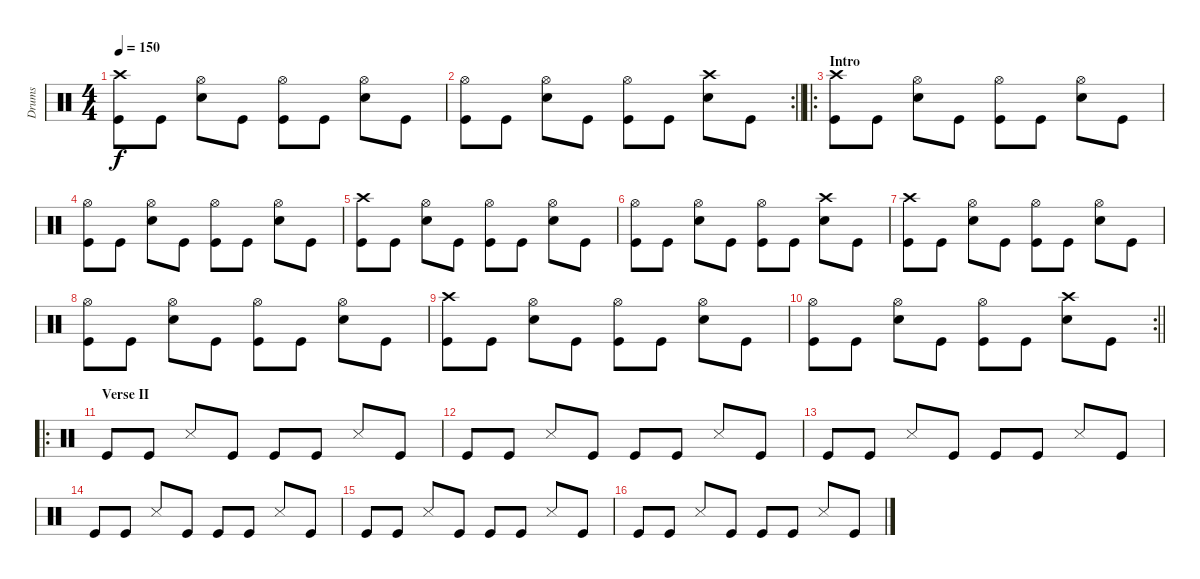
\track ("Drums" "Drums") {instrument percussion}
\staff {score}
\articulation defaults
\ts (4 4)
\tempo 150
\clef neutral
\ks c
("Crash high (hit)" "Kick (hit)").8{dy f} "Kick (hit)".8 ("Electric Snare (hit)" "Hi-Hat (open)").8 "Kick (hit)".8 ("Kick (hit)" "Hi-Hat (open)").8 "Kick (hit)".8 ("Electric Snare (hit)" "Hi-Hat (open)").8 "Kick (hit)".8 |
\rc 2
\barLineRight lightlight
("Kick (hit)" "Hi-Hat (open)").8 "Kick (hit)".8 ("Electric Snare (hit)" "Hi-Hat (open)").8 "Kick (hit)".8 ("Kick (hit)" "Hi-Hat (open)").8 "Kick (hit)".8 ("Crash high (hit)" "Electric Snare (hit)").8 "Kick (hit)".8 |
\ro
\section ("" "Intro")
("Crash high (hit)" "Kick (hit)").8 "Kick (hit)".8 ("Electric Snare (hit)" "Hi-Hat (open)").8 "Kick (hit)".8 ("Kick (hit)" "Hi-Hat (open)").8 "Kick (hit)".8 ("Electric Snare (hit)" "Hi-Hat (open)").8 "Kick (hit)".8 |
("Kick (hit)" "Hi-Hat (open)").8 "Kick (hit)".8 ("Electric Snare (hit)" "Hi-Hat (open)").8 "Kick (hit)".8 ("Kick (hit)" "Hi-Hat (open)").8 "Kick (hit)".8 ("Electric Snare (hit)" "Hi-Hat (open)").8 "Kick (hit)".8 |
("Crash high (hit)" "Kick (hit)").8 "Kick (hit)".8 ("Electric Snare (hit)" "Hi-Hat (open)").8 "Kick (hit)".8 ("Kick (hit)" "Hi-Hat (open)").8 "Kick (hit)".8 ("Electric Snare (hit)" "Hi-Hat (open)").8 "Kick (hit)".8 |
("Kick (hit)" "Hi-Hat (open)").8 "Kick (hit)".8 ("Electric Snare (hit)" "Hi-Hat (open)").8 "Kick (hit)".8 ("Kick (hit)" "Hi-Hat (open)").8 "Kick (hit)".8 ("Crash high (hit)" "Electric Snare (hit)").8 "Kick (hit)".8 |
("Crash high (hit)" "Kick (hit)").8 "Kick (hit)".8 ("Electric Snare (hit)" "Hi-Hat (open)").8 "Kick (hit)".8 ("Kick (hit)" "Hi-Hat (open)").8 "Kick (hit)".8 ("Electric Snare (hit)" "Hi-Hat (open)").8 "Kick (hit)".8 |
("Kick (hit)" "Hi-Hat (open)").8 "Kick (hit)".8 ("Electric Snare (hit)" "Hi-Hat (open)").8 "Kick (hit)".8 ("Kick (hit)" "Hi-Hat (open)").8 "Kick (hit)".8 ("Electric Snare (hit)" "Hi-Hat (open)").8 "Kick (hit)".8 |
("Crash high (hit)" "Kick (hit)").8 "Kick (hit)".8 ("Electric Snare (hit)" "Hi-Hat (open)").8 "Kick (hit)".8 ("Kick (hit)" "Hi-Hat (open)").8 "Kick (hit)".8 ("Electric Snare (hit)" "Hi-Hat (open)").8 "Kick (hit)".8 |
\rc 2
\barLineRight lightlight
("Kick (hit)" "Hi-Hat (open)").8 "Kick (hit)".8 ("Electric Snare (hit)" "Hi-Hat (open)").8 "Kick (hit)".8 ("Kick (hit)" "Hi-Hat (open)").8 "Kick (hit)".8 ("Crash high (hit)" "Electric Snare (hit)").8 "Kick (hit)".8 |
\ro
\section ("" "Verse II")
"Kick (hit)".8 "Kick (hit)".8 "Snare (side stick) 3".8 "Kick (hit)".8 "Kick (hit)".8 "Kick (hit)".8 "Snare (side stick) 3".8 "Kick (hit)".8 |
"Kick (hit)".8 "Kick (hit)".8 "Snare (side stick) 3".8 "Kick (hit)".8 "Kick (hit)".8 "Kick (hit)".8 "Snare (side stick) 3".8 "Kick (hit)".8 |
"Kick (hit)".8 "Kick (hit)".8 "Snare (side stick) 3".8 "Kick (hit)".8 "Kick (hit)".8 "Kick (hit)".8 "Snare (side stick) 3".8 "Kick (hit)".8 |
"Kick (hit)".8 "Kick (hit)".8 "Snare (side stick) 3".8 "Kick (hit)".8 "Kick (hit)".8 "Kick (hit)".8 "Snare (side stick) 3".8 "Kick (hit)".8 |
"Kick (hit)".8 "Kick (hit)".8 "Snare (side stick) 3".8 "Kick (hit)".8 "Kick (hit)".8 "Kick (hit)".8 "Snare (side stick) 3".8 "Kick (hit)".8 |
"Kick (hit)".8 "Kick (hit)".8 "Snare (side stick) 3".8 "Kick (hit)".8 "Kick (hit)".8 "Kick (hit)".8 "Snare (side stick) 3".8 "Kick (hit)".8
